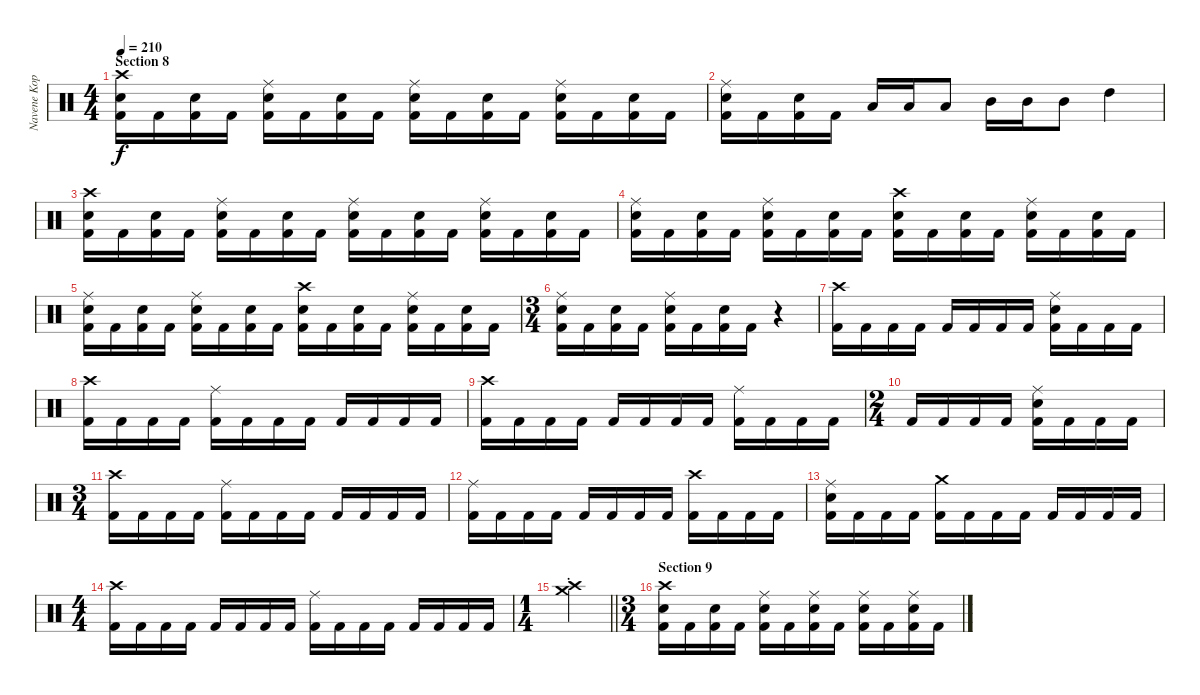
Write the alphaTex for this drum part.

\track ("Navene Koperweis - drums" "Navene Kop") {instrument percussion}
\staff {score}
\articulation defaults
\ts (4 4)
\section ("" "Section 8")
\tempo 210
\clef neutral
\ks c
("Crash high (hit)" "Electric Snare (hit)" "Kick (hit) 2").16{dy f} "Kick (hit) 2".16 ("Electric Snare (hit)" "Kick (hit) 2").16 "Kick (hit) 2".16 ("Ride (middle)" "Electric Snare (hit)" "Kick (hit) 2").16 "Kick (hit) 2".16 ("Electric Snare (hit)" "Kick (hit) 2").16 "Kick (hit) 2".16 ("Ride (middle)" "Electric Snare (hit)" "Kick (hit) 2").16 "Kick (hit) 2".16 ("Electric Snare (hit)" "Kick (hit) 2").16 "Kick (hit) 2".16 ("Ride (middle)" "Electric Snare (hit)" "Kick (hit) 2").16 "Kick (hit) 2".16 ("Electric Snare (hit)" "Kick (hit) 2").16 "Kick (hit) 2".16 |
("Ride (middle)" "Electric Snare (hit)" "Kick (hit) 2").16 "Kick (hit) 2".16 ("Electric Snare (hit)" "Kick (hit) 2").16 "Kick (hit) 2".16 "Low Tom (hit)".16 "Low Tom (hit)".16 "Low Tom (hit)".8 "Mid Tom (hit)".16 "Mid Tom (hit)".16 "Mid Tom (hit)".8 "High Tom (hit)".4 |
("Crash high (hit)" "Electric Snare (hit)" "Kick (hit) 2").16 "Kick (hit) 2".16 ("Electric Snare (hit)" "Kick (hit) 2").16 "Kick (hit) 2".16 ("Ride (middle)" "Electric Snare (hit)" "Kick (hit) 2").16 "Kick (hit) 2".16 ("Electric Snare (hit)" "Kick (hit) 2").16 "Kick (hit) 2".16 ("Ride (middle)" "Electric Snare (hit)" "Kick (hit) 2").16 "Kick (hit) 2".16 ("Electric Snare (hit)" "Kick (hit) 2").16 "Kick (hit) 2".16 ("Ride (middle)" "Electric Snare (hit)" "Kick (hit) 2").16 "Kick (hit) 2".16 ("Electric Snare (hit)" "Kick (hit) 2").16 "Kick (hit) 2".16 |
("Ride (middle)" "Electric Snare (hit)" "Kick (hit) 2").16 "Kick (hit) 2".16 ("Electric Snare (hit)" "Kick (hit) 2").16 "Kick (hit) 2".16 ("Ride (middle)" "Electric Snare (hit)" "Kick (hit) 2").16 "Kick (hit) 2".16 ("Electric Snare (hit)" "Kick (hit) 2").16 "Kick (hit) 2".16 ("Crash high (hit)" "Electric Snare (hit)" "Kick (hit) 2").16 "Kick (hit) 2".16 ("Electric Snare (hit)" "Kick (hit) 2").16 "Kick (hit) 2".16 ("Ride (middle)" "Electric Snare (hit)" "Kick (hit) 2").16 "Kick (hit) 2".16 ("Electric Snare (hit)" "Kick (hit) 2").16 "Kick (hit) 2".16 |
("Ride (middle)" "Electric Snare (hit)" "Kick (hit) 2").16 "Kick (hit) 2".16 ("Electric Snare (hit)" "Kick (hit) 2").16 "Kick (hit) 2".16 ("Ride (middle)" "Electric Snare (hit)" "Kick (hit) 2").16 "Kick (hit) 2".16 ("Electric Snare (hit)" "Kick (hit) 2").16 "Kick (hit) 2".16 ("Crash high (hit)" "Electric Snare (hit)" "Kick (hit) 2").16 "Kick (hit) 2".16 ("Electric Snare (hit)" "Kick (hit) 2").16 "Kick (hit) 2".16 ("Ride (middle)" "Electric Snare (hit)" "Kick (hit) 2").16 "Kick (hit) 2".16 ("Electric Snare (hit)" "Kick (hit) 2").16 "Kick (hit) 2".16 |
\ts (3 4)
("Ride (middle)" "Electric Snare (hit)" "Kick (hit) 2").16 "Kick (hit) 2".16 ("Electric Snare (hit)" "Kick (hit) 2").16 "Kick (hit) 2".16 ("Ride (middle)" "Electric Snare (hit)" "Kick (hit) 2").16 "Kick (hit) 2".16 ("Electric Snare (hit)" "Kick (hit) 2").16 "Kick (hit) 2".16 r.4 |
("Crash high (hit)" "Kick (hit) 2").16 "Kick (hit) 2".16 "Kick (hit) 2".16 "Kick (hit) 2".16 "Kick (hit) 2".16 "Kick (hit) 2".16 "Kick (hit) 2".16 "Kick (hit) 2".16 ("Ride (middle)" "Electric Snare (hit)" "Kick (hit) 2").16 "Kick (hit) 2".16 "Kick (hit) 2".16 "Kick (hit) 2".16 |
("Crash high (hit)" "Kick (hit) 2").16 "Kick (hit) 2".16 "Kick (hit) 2".16 "Kick (hit) 2".16 ("Ride (middle)" "Kick (hit) 2").16 "Kick (hit) 2".16 "Kick (hit) 2".16 "Kick (hit) 2".16 "Kick (hit) 2".16 "Kick (hit) 2".16 "Kick (hit) 2".16 "Kick (hit) 2".16 |
("Crash high (hit)" "Kick (hit) 2").16 "Kick (hit) 2".16 "Kick (hit) 2".16 "Kick (hit) 2".16 "Kick (hit) 2".16 "Kick (hit) 2".16 "Kick (hit) 2".16 "Kick (hit) 2".16 ("Ride (middle)" "Kick (hit) 2").16 "Kick (hit) 2".16 "Kick (hit) 2".16 "Kick (hit) 2".16 |
\ts (2 4)
"Kick (hit) 2".16 "Kick (hit) 2".16 "Kick (hit) 2".16 "Kick (hit) 2".16 ("Ride (middle)" "Electric Snare (hit)" "Kick (hit) 2").16 "Kick (hit) 2".16 "Kick (hit) 2".16 "Kick (hit) 2".16 |
\ts (3 4)
("Crash high (hit)" "Kick (hit) 2").16 "Kick (hit) 2".16 "Kick (hit) 2".16 "Kick (hit) 2".16 ("Ride (middle)" "Kick (hit) 2").16 "Kick (hit) 2".16 "Kick (hit) 2".16 "Kick (hit) 2".16 "Kick (hit) 2".16 "Kick (hit) 2".16 "Kick (hit) 2".16 "Kick (hit) 2".16 |
("Ride (middle)" "Kick (hit) 2").16 "Kick (hit) 2".16 "Kick (hit) 2".16 "Kick (hit) 2".16 "Kick (hit) 2".16 "Kick (hit) 2".16 "Kick (hit) 2".16 "Kick (hit) 2".16 ("Crash high (hit)" "Kick (hit) 2").16 "Kick (hit) 2".16 "Kick (hit) 2".16 "Kick (hit) 2".16 |
("Ride (middle)" "Electric Snare (hit)" "Kick (hit) 2").16 "Kick (hit) 2".16 "Kick (hit) 2".16 "Kick (hit) 2".16 ("Crash medium (hit)" "Kick (hit) 2").16 "Kick (hit) 2".16 "Kick (hit) 2".16 "Kick (hit) 2".16 "Kick (hit) 2".16 "Kick (hit) 2".16 "Kick (hit) 2".16 "Kick (hit) 2".16 |
\ts (4 4)
("Crash high (hit)" "Kick (hit) 2").16 "Kick (hit) 2".16 "Kick (hit) 2".16 "Kick (hit) 2".16 "Kick (hit) 2".16 "Kick (hit) 2".16 "Kick (hit) 2".16 "Kick (hit) 2".16 ("Ride (middle)" "Kick (hit) 2").16 "Kick (hit) 2".16 "Kick (hit) 2".16 "Kick (hit) 2".16 "Kick (hit) 2".16 "Kick (hit) 2".16 "Kick (hit) 2".16 "Kick (hit) 2".16 |
\ts (1 4)
\barLineRight lightlight
("Crash high (hit)"{st} "Crash medium (hit)").4 |
\ts (3 4)
\section ("" "Section 9")
("Crash high (hit)" "Electric Snare (hit)" "Kick (hit) 2").16 "Kick (hit) 2".16 ("Electric Snare (hit)" "Kick (hit) 2").16 "Kick (hit) 2".16 ("Ride (middle)" "Electric Snare (hit)" "Kick (hit) 2").16 "Kick (hit) 2".16 ("Ride (middle)" "Electric Snare (hit)" "Kick (hit) 2").16 "Kick (hit) 2".16 ("Ride (middle)" "Electric Snare (hit)" "Kick (hit) 2").16 "Kick (hit) 2".16 ("Ride (middle)" "Electric Snare (hit)" "Kick (hit) 2").16 "Kick (hit) 2".16
